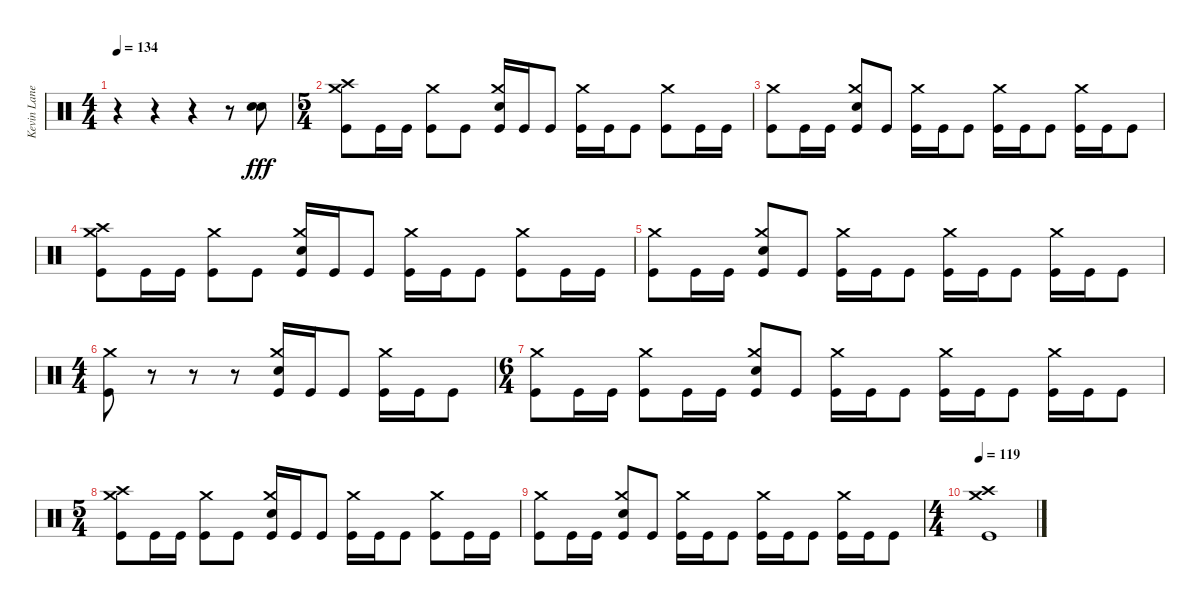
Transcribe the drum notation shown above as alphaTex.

\track ("Kevin Lane" "Kevin Lane") {instrument percussion}
\staff {score}
\articulation defaults
\ts (4 4)
\tempo 134
\clef neutral
\ks c
r.4{dy fff} r.4 r.4 r.8 ("Snare (hit) 2" "Snare (hit) 2").8{bd 240} |
\ts (5 4)
("Crash high (hit)" "Crash medium (hit)" "Kick (hit)").8 "Kick (hit)".16 "Kick (hit)".16 ("Crash medium (hit)" "Kick (hit)").8 "Kick (hit)".8 ("Crash medium (hit)" "Snare (hit) 2" "Kick (hit)").16 "Kick (hit)".16 "Kick (hit)".8 ("Crash medium (hit)" "Kick (hit)").16 "Kick (hit)".16 "Kick (hit)".8 ("Crash medium (hit)" "Kick (hit)").8 "Kick (hit)".16 "Kick (hit)".16 |
("Crash medium (hit)" "Kick (hit)").8 "Kick (hit)".16 "Kick (hit)".16 ("Crash medium (hit)" "Snare (hit) 2" "Kick (hit)").8 "Kick (hit)".8 ("Crash medium (hit)" "Kick (hit)").16 "Kick (hit)".16 "Kick (hit)".8 ("Crash medium (hit)" "Kick (hit)").16 "Kick (hit)".16 "Kick (hit)".8 ("Crash medium (hit)" "Kick (hit)").16 "Kick (hit)".16 "Kick (hit)".8 |
("Crash high (hit)" "Crash medium (hit)" "Kick (hit)").8 "Kick (hit)".16 "Kick (hit)".16 ("Crash medium (hit)" "Kick (hit)").8 "Kick (hit)".8 ("Crash medium (hit)" "Snare (hit) 2" "Kick (hit)").16 "Kick (hit)".16 "Kick (hit)".8 ("Crash medium (hit)" "Kick (hit)").16 "Kick (hit)".16 "Kick (hit)".8 ("Crash medium (hit)" "Kick (hit)").8 "Kick (hit)".16 "Kick (hit)".16 |
("Crash medium (hit)" "Kick (hit)").8 "Kick (hit)".16 "Kick (hit)".16 ("Crash medium (hit)" "Snare (hit) 2" "Kick (hit)").8 "Kick (hit)".8 ("Crash medium (hit)" "Kick (hit)").16 "Kick (hit)".16 "Kick (hit)".8 ("Crash medium (hit)" "Kick (hit)").16 "Kick (hit)".16 "Kick (hit)".8 ("Crash medium (hit)" "Kick (hit)").16 "Kick (hit)".16 "Kick (hit)".8 |
\ts (4 4)
("Crash medium (hit)" "Kick (hit)").8 r.8{volume 0} r.8 r.8 ("Crash medium (hit)" "Snare (hit) 2" "Kick (hit)").16{volume 13} "Kick (hit)".16 "Kick (hit)".8 ("Crash medium (hit)" "Kick (hit)").16 "Kick (hit)".16 "Kick (hit)".8 |
\ts (6 4)
("Crash medium (hit)" "Kick (hit)").8 "Kick (hit)".16 "Kick (hit)".16 ("Crash medium (hit)" "Kick (hit)").8 "Kick (hit)".16 "Kick (hit)".16 ("Crash medium (hit)" "Snare (hit) 2" "Kick (hit)").8 "Kick (hit)".8 ("Crash medium (hit)" "Kick (hit)").16 "Kick (hit)".16 "Kick (hit)".8 ("Crash medium (hit)" "Kick (hit)").16 "Kick (hit)".16 "Kick (hit)".8 ("Crash medium (hit)" "Kick (hit)").16 "Kick (hit)".16 "Kick (hit)".8 |
\ts (5 4)
("Crash high (hit)" "Crash medium (hit)" "Kick (hit)").8 "Kick (hit)".16 "Kick (hit)".16 ("Crash medium (hit)" "Kick (hit)").8 "Kick (hit)".8 ("Crash medium (hit)" "Snare (hit) 2" "Kick (hit)").16 "Kick (hit)".16 "Kick (hit)".8 ("Crash medium (hit)" "Kick (hit)").16 "Kick (hit)".16 "Kick (hit)".8 ("Crash medium (hit)" "Kick (hit)").8 "Kick (hit)".16 "Kick (hit)".16 |
("Crash medium (hit)" "Kick (hit)").8 "Kick (hit)".16 "Kick (hit)".16 ("Crash medium (hit)" "Snare (hit) 2" "Kick (hit)").8 "Kick (hit)".8 ("Crash medium (hit)" "Kick (hit)").16 "Kick (hit)".16 "Kick (hit)".8 ("Crash medium (hit)" "Kick (hit)").16 "Kick (hit)".16 "Kick (hit)".8 ("Crash medium (hit)" "Kick (hit)").16 "Kick (hit)".16 "Kick (hit)".8 |
\ts (4 4)
\tempo 119
("Crash high (hit)" "Crash medium (hit)" "Kick (hit)").1
